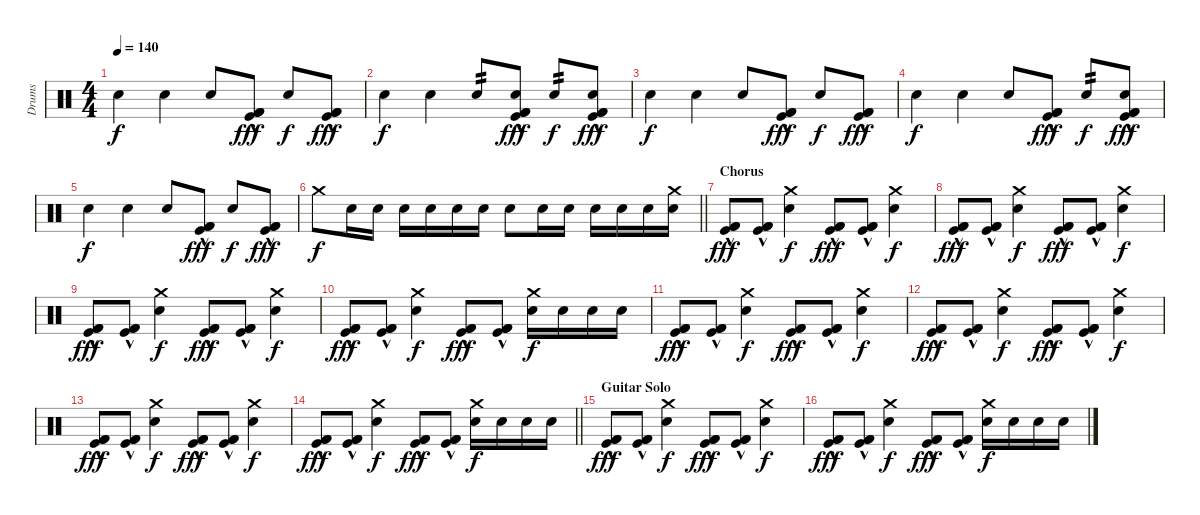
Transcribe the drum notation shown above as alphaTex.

\track ("Drums" "Drums") {instrument percussion}
\staff {score}
\articulation defaults
\ts (4 4)
\tempo 140
\clef neutral
\ks c "Snare (hit) 2".4{dy f} "Snare (hit) 2".4 "Snare (hit) 2".8
("Kick (hit) 2"{hac} "Kick (hit)"{hac} "Kick (hit) 2"{hac}).8{dy fff} "Snare (hit) 2".8{dy f} ("Kick (hit) 2"{hac} "Kick (hit)"{hac} "Kick (hit) 2"{hac}).8{dy fff} |
"Snare (hit) 2".4{dy f} "Snare (hit) 2".4 "Snare (hit) 2".8{tp 2} ("Snare (hit) 2" "Kick (hit) 2"{hac} "Kick (hit)"{hac} "Kick (hit) 2"{hac}).8{dy fff} "Snare (hit) 2".8{tp 2 dy f} ("Snare (hit) 2" "Kick (hit) 2"{hac} "Kick (hit)"{hac} "Kick (hit) 2"{hac}).8{dy fff} |
"Snare (hit) 2".4{dy f} "Snare (hit) 2".4 "Snare (hit) 2".8 ("Kick (hit) 2"{hac} "Kick (hit)"{hac} "Kick (hit) 2"{hac}).8{dy fff} "Snare (hit) 2".8{dy f} ("Kick (hit) 2"{hac} "Kick (hit)"{hac} "Kick (hit) 2"{hac}).8{dy fff} |
"Snare (hit) 2".4{dy f} "Snare (hit) 2".4 "Snare (hit) 2".8 ("Kick (hit) 2"{hac} "Kick (hit)"{hac} "Kick (hit) 2"{hac}).8{dy fff} "Snare (hit) 2".8{tp 2 dy f} ("Snare (hit) 2" "Kick (hit) 2"{hac} "Kick (hit)"{hac} "Kick (hit) 2"{hac}).8{dy fff} |
"Snare (hit) 2".4{dy f} "Snare (hit) 2".4 "Snare (hit) 2".8 ("Kick (hit) 2"{hac} "Kick (hit)"{hac} "Kick (hit) 2"{hac}).8{dy fff} "Snare (hit) 2".8{dy f} ("Kick (hit) 2"{hac} "Kick (hit)"{hac} "Kick (hit) 2"{hac}).8{dy fff} |
\barLineRight lightlight "Crash medium (hit)".8{dy f} "Snare (hit) 2".16 "Snare (hit) 2".16 "Snare (hit) 2".16 "Snare (hit) 2".16 "Snare (hit) 2".16 "Snare (hit) 2".16 "Snare (hit) 2".8 "Snare (hit) 2".16 "Snare (hit) 2".16 "Snare (hit) 2".16 "Snare (hit) 2".16 "Snare (hit) 2".16
("Snare (hit) 2" "Crash medium (hit)").16 |
\section ("" "Chorus")
("Kick (hit) 2"{hac} "Kick (hit)"{hac} "Kick (hit) 2"{hac}).8{dy fff} ("Kick (hit) 2"{hac} "Kick (hit)"{hac} "Kick (hit) 2"{hac}).8 ("Snare (hit) 2" "Crash medium (hit)").4{dy f} ("Kick (hit) 2"{hac} "Kick (hit)"{hac} "Kick (hit) 2"{hac}).8{dy fff} ("Kick (hit) 2"{hac} "Kick (hit)"{hac} "Kick (hit) 2"{hac}).8 ("Snare (hit) 2" "Crash medium (hit)").4{dy f} |
("Kick (hit) 2"{hac} "Kick (hit)"{hac} "Kick (hit) 2"{hac}).8{dy fff} ("Kick (hit) 2"{hac} "Kick (hit)"{hac} "Kick (hit) 2"{hac}).8 ("Snare (hit) 2" "Crash medium (hit)").4{dy f} ("Kick (hit) 2"{hac} "Kick (hit)"{hac} "Kick (hit) 2"{hac}).8{dy fff} ("Kick (hit) 2"{hac} "Kick (hit)"{hac} "Kick (hit) 2"{hac}).8 ("Snare (hit) 2" "Crash medium (hit)").4{dy f} |
("Kick (hit) 2"{hac} "Kick (hit)"{hac} "Kick (hit) 2"{hac}).8{dy fff} ("Kick (hit) 2"{hac} "Kick (hit)"{hac} "Kick (hit) 2"{hac}).8 ("Snare (hit) 2" "Crash medium (hit)").4{dy f} ("Kick (hit) 2"{hac} "Kick (hit)"{hac} "Kick (hit) 2"{hac}).8{dy fff} ("Kick (hit) 2"{hac} "Kick (hit)"{hac} "Kick (hit) 2"{hac}).8 ("Snare (hit) 2" "Crash medium (hit)").4{dy f} |
("Kick (hit) 2"{hac} "Kick (hit)"{hac} "Kick (hit) 2"{hac}).8{dy fff} ("Kick (hit) 2"{hac} "Kick (hit)"{hac} "Kick (hit) 2"{hac}).8 ("Snare (hit) 2" "Crash medium (hit)").4{dy f} ("Kick (hit) 2"{hac} "Kick (hit)"{hac} "Kick (hit) 2"{hac}).8{dy fff} ("Kick (hit) 2"{hac} "Kick (hit)"{hac} "Kick (hit) 2"{hac}).8 ("Snare (hit) 2" "Crash medium (hit)").16{dy f} "Snare (hit) 2".16 "Snare (hit) 2".16 "Snare (hit) 2".16 |
("Kick (hit) 2"{hac} "Kick (hit)"{hac} "Kick (hit) 2"{hac}).8{dy fff} ("Kick (hit) 2"{hac} "Kick (hit)"{hac} "Kick (hit) 2"{hac}).8 ("Snare (hit) 2" "Crash medium (hit)").4{dy f} ("Kick (hit) 2"{hac} "Kick (hit)"{hac} "Kick (hit) 2"{hac}).8{dy fff} ("Kick (hit) 2"{hac} "Kick (hit)"{hac} "Kick (hit) 2"{hac}).8 ("Snare (hit) 2" "Crash medium (hit)").4{dy f} |
("Kick (hit) 2"{hac} "Kick (hit)"{hac} "Kick (hit) 2"{hac}).8{dy fff} ("Kick (hit) 2"{hac} "Kick (hit)"{hac} "Kick (hit) 2"{hac}).8 ("Snare (hit) 2" "Crash medium (hit)").4{dy f} ("Kick (hit) 2"{hac} "Kick (hit)"{hac} "Kick (hit) 2"{hac}).8{dy fff} ("Kick (hit) 2"{hac} "Kick (hit)"{hac} "Kick (hit) 2"{hac}).8 ("Snare (hit) 2" "Crash medium (hit)").4{dy f} |
("Kick (hit) 2"{hac} "Kick (hit)"{hac} "Kick (hit) 2"{hac}).8{dy fff} ("Kick (hit) 2"{hac} "Kick (hit)"{hac} "Kick (hit) 2"{hac}).8 ("Snare (hit) 2" "Crash medium (hit)").4{dy f} ("Kick (hit) 2"{hac} "Kick (hit)"{hac} "Kick (hit) 2"{hac}).8{dy fff} ("Kick (hit) 2"{hac} "Kick (hit)"{hac} "Kick (hit) 2"{hac}).8 ("Snare (hit) 2" "Crash medium (hit)").4{dy f} |
\barLineRight lightlight
("Kick (hit) 2"{hac} "Kick (hit)"{hac} "Kick (hit) 2"{hac}).8{dy fff} ("Kick (hit) 2"{hac} "Kick (hit)"{hac} "Kick (hit) 2"{hac}).8 ("Snare (hit) 2" "Crash medium (hit)").4{dy f} ("Kick (hit) 2"{hac} "Kick (hit)"{hac} "Kick (hit) 2"{hac}).8{dy fff} ("Kick (hit) 2"{hac} "Kick (hit)"{hac} "Kick (hit) 2"{hac}).8 ("Snare (hit) 2" "Crash medium (hit)").16{dy f} "Snare (hit) 2".16 "Snare (hit) 2".16 "Snare (hit) 2".16 |
\section ("" "Guitar Solo")
("Kick (hit) 2"{hac} "Kick (hit)"{hac} "Kick (hit) 2"{hac}).8{dy fff} ("Kick (hit) 2"{hac} "Kick (hit)"{hac} "Kick (hit) 2"{hac}).8 ("Snare (hit) 2" "Crash medium (hit)").4{dy f} ("Kick (hit) 2"{hac} "Kick (hit)"{hac} "Kick (hit) 2"{hac}).8{dy fff} ("Kick (hit) 2"{hac} "Kick (hit)"{hac} "Kick (hit) 2"{hac}).8 ("Snare (hit) 2" "Crash medium (hit)").4{dy f} |
("Kick (hit) 2"{hac} "Kick (hit)"{hac} "Kick (hit) 2"{hac}).8{dy fff} ("Kick (hit) 2"{hac} "Kick (hit)"{hac} "Kick (hit) 2"{hac}).8 ("Snare (hit) 2" "Crash medium (hit)").4{dy f} ("Kick (hit) 2"{hac} "Kick (hit)"{hac} "Kick (hit) 2"{hac}).8{dy fff} ("Kick (hit) 2"{hac} "Kick (hit)"{hac} "Kick (hit) 2"{hac}).8 ("Snare (hit) 2" "Crash medium (hit)").16{dy f} "Snare (hit) 2".16 "Snare (hit) 2".16 "Snare (hit) 2".16
